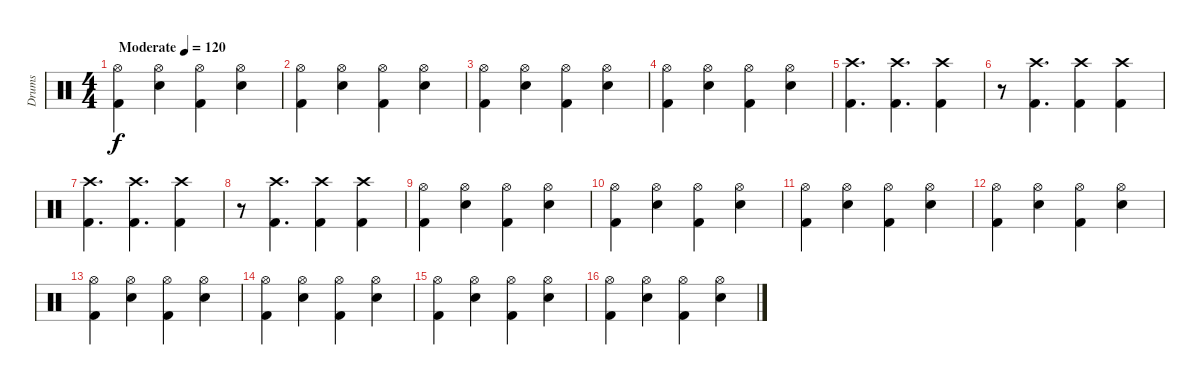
\track ("Drums" "Drums") {instrument percussion}
\staff {score}
\articulation defaults
\ts (4 4)
\tempo (120 "Moderate")
\clef neutral
\ks c
("Hi-Hat (open)" "Kick (hit) 2").4{dy f} ("Hi-Hat (open)" "Snare (hit) 2").4 ("Hi-Hat (open)" "Kick (hit) 2").4 ("Hi-Hat (open)" "Snare (hit) 2").4 |
("Hi-Hat (open)" "Kick (hit) 2").4 ("Hi-Hat (open)" "Snare (hit) 2").4 ("Hi-Hat (open)" "Kick (hit) 2").4 ("Hi-Hat (open)" "Snare (hit) 2").4 |
("Hi-Hat (open)" "Kick (hit) 2").4 ("Hi-Hat (open)" "Snare (hit) 2").4 ("Hi-Hat (open)" "Kick (hit) 2").4 ("Hi-Hat (open)" "Snare (hit) 2").4 |
("Hi-Hat (open)" "Kick (hit) 2").4 ("Hi-Hat (open)" "Snare (hit) 2").4 ("Hi-Hat (open)" "Kick (hit) 2").4 ("Hi-Hat (open)" "Snare (hit) 2").4 |
("Crash high (hit)" "Kick (hit) 2").4{d} ("Crash high (hit)" "Kick (hit) 2").4{d} ("Crash high (hit)" "Kick (hit) 2").4 |
r.8 ("Crash high (hit)" "Kick (hit) 2").4{d} ("Crash high (hit)" "Kick (hit) 2").4 ("Crash high (hit)" "Kick (hit) 2").4 |
("Crash high (hit)" "Kick (hit) 2").4{d} ("Crash high (hit)" "Kick (hit) 2").4{d} ("Crash high (hit)" "Kick (hit) 2").4 |
r.8 ("Crash high (hit)" "Kick (hit) 2").4{d} ("Crash high (hit)" "Kick (hit) 2").4 ("Crash high (hit)" "Kick (hit) 2").4 |
("Hi-Hat (open)" "Kick (hit) 2").4 ("Hi-Hat (open)" "Snare (hit) 2").4 ("Hi-Hat (open)" "Kick (hit) 2").4 ("Hi-Hat (open)" "Snare (hit) 2").4 |
("Hi-Hat (open)" "Kick (hit) 2").4 ("Hi-Hat (open)" "Snare (hit) 2").4 ("Hi-Hat (open)" "Kick (hit) 2").4 ("Hi-Hat (open)" "Snare (hit) 2").4 |
("Hi-Hat (open)" "Kick (hit) 2").4 ("Hi-Hat (open)" "Snare (hit) 2").4 ("Hi-Hat (open)" "Kick (hit) 2").4 ("Hi-Hat (open)" "Snare (hit) 2").4 |
("Hi-Hat (open)" "Kick (hit) 2").4 ("Hi-Hat (open)" "Snare (hit) 2").4 ("Hi-Hat (open)" "Kick (hit) 2").4 ("Hi-Hat (open)" "Snare (hit) 2").4 |
("Hi-Hat (open)" "Kick (hit) 2").4 ("Hi-Hat (open)" "Snare (hit) 2").4 ("Hi-Hat (open)" "Kick (hit) 2").4 ("Hi-Hat (open)" "Snare (hit) 2").4 |
("Hi-Hat (open)" "Kick (hit) 2").4 ("Hi-Hat (open)" "Snare (hit) 2").4 ("Hi-Hat (open)" "Kick (hit) 2").4 ("Hi-Hat (open)" "Snare (hit) 2").4 |
("Hi-Hat (open)" "Kick (hit) 2").4 ("Hi-Hat (open)" "Snare (hit) 2").4 ("Hi-Hat (open)" "Kick (hit) 2").4 ("Hi-Hat (open)" "Snare (hit) 2").4 |
("Hi-Hat (open)" "Kick (hit) 2").4 ("Hi-Hat (open)" "Snare (hit) 2").4 ("Hi-Hat (open)" "Kick (hit) 2").4 ("Hi-Hat (open)" "Snare (hit) 2").4
